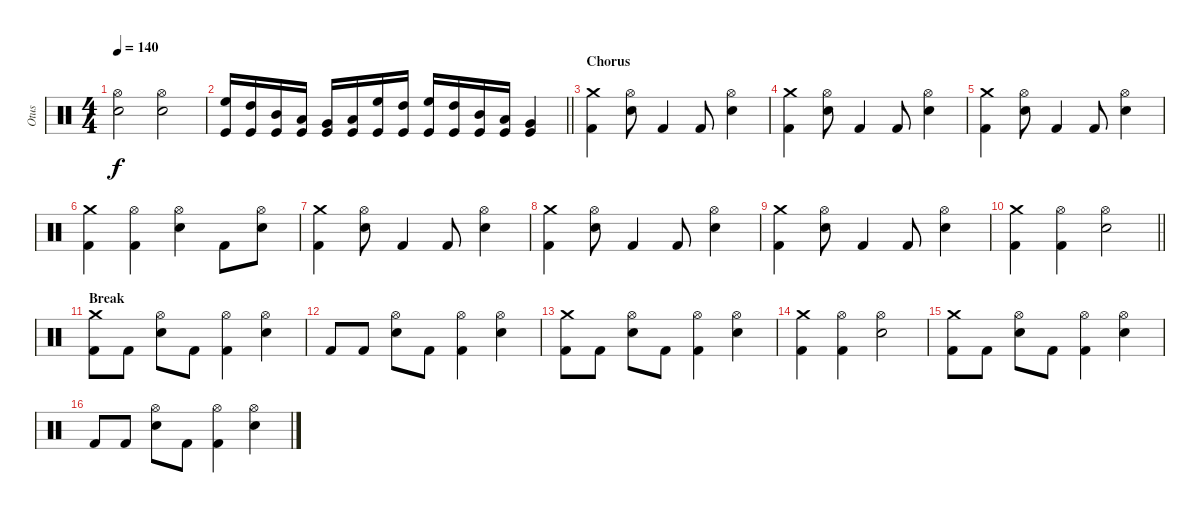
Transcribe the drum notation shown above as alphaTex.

\track ("Otus" "Otus") {instrument percussion}
\staff {score}
\articulation defaults
\ts (4 4)
\tempo 140
\clef neutral
\ks c
("Hi-Hat (open)" "Electric Snare (hit)").2{dy f} ("Hi-Hat (open)" "Electric Snare (hit)").2 |
\barLineRight lightlight
("High Floor Tom (hit)" "Kick (hit)").16 ("High Tom (hit)" "Kick (hit)").16 ("Mid Tom (hit)" "Kick (hit)").16 ("Low Tom (hit)" "Kick (hit)").16 ("Very Low Tom (hit)" "Kick (hit)").16 ("Low Floor Tom (hit)" "Kick (hit)").16 ("High Floor Tom (hit)" "Kick (hit)").16 ("High Tom (hit)" "Kick (hit)").16 ("High Floor Tom (hit)" "Kick (hit)").16 ("High Tom (hit)" "Kick (hit)").16 ("Mid Tom (hit)" "Kick (hit)").16 ("Low Tom (hit)" "Kick (hit)").16 ("Very Low Tom (hit)" "Kick (hit)").4 |
\section ("" "Chorus")
("Crash medium (hit)" "Kick (hit) 2").4 ("Hi-Hat (open)" "Electric Snare (hit)").8 "Kick (hit) 2".4 "Kick (hit) 2".8 ("Hi-Hat (open)" "Electric Snare (hit)").4 |
("Crash medium (hit)" "Kick (hit) 2").4 ("Hi-Hat (open)" "Electric Snare (hit)").8 "Kick (hit) 2".4 "Kick (hit) 2".8 ("Hi-Hat (open)" "Electric Snare (hit)").4 |
("Crash medium (hit)" "Kick (hit) 2").4 ("Hi-Hat (open)" "Electric Snare (hit)").8 "Kick (hit) 2".4 "Kick (hit) 2".8 ("Hi-Hat (open)" "Electric Snare (hit)").4 |
("Crash medium (hit)" "Kick (hit) 2").4 ("Hi-Hat (open)" "Kick (hit) 2").4 ("Hi-Hat (open)" "Electric Snare (hit)").4 "Kick (hit) 2".8 ("Hi-Hat (open)" "Electric Snare (hit)").8 |
("Crash medium (hit)" "Kick (hit) 2").4 ("Hi-Hat (open)" "Electric Snare (hit)").8 "Kick (hit) 2".4 "Kick (hit) 2".8 ("Hi-Hat (open)" "Electric Snare (hit)").4 |
("Crash medium (hit)" "Kick (hit) 2").4 ("Hi-Hat (open)" "Electric Snare (hit)").8 "Kick (hit) 2".4 "Kick (hit) 2".8 ("Hi-Hat (open)" "Electric Snare (hit)").4 |
("Crash medium (hit)" "Kick (hit) 2").4 ("Hi-Hat (open)" "Electric Snare (hit)").8 "Kick (hit) 2".4 "Kick (hit) 2".8 ("Hi-Hat (open)" "Electric Snare (hit)").4 |
\barLineRight lightlight
("Crash medium (hit)" "Kick (hit) 2").4 ("Hi-Hat (open)" "Kick (hit) 2").4 ("Hi-Hat (open)" "Electric Snare (hit)").2 |
\section ("" "Break")
("Crash medium (hit)" "Kick (hit) 2").8 "Kick (hit) 2".8 ("Hi-Hat (open)" "Electric Snare (hit)").8 "Kick (hit) 2".8 ("Hi-Hat (open)" "Kick (hit) 2").4 ("Hi-Hat (open)" "Electric Snare (hit)").4 |
"Kick (hit) 2".8 "Kick (hit) 2".8 ("Hi-Hat (open)" "Electric Snare (hit)").8 "Kick (hit) 2".8 ("Hi-Hat (open)" "Kick (hit) 2").4 ("Hi-Hat (open)" "Electric Snare (hit)").4 |
("Crash medium (hit)" "Kick (hit) 2").8 "Kick (hit) 2".8 ("Hi-Hat (open)" "Electric Snare (hit)").8 "Kick (hit) 2".8 ("Hi-Hat (open)" "Kick (hit) 2").4 ("Hi-Hat (open)" "Electric Snare (hit)").4 |
("Crash medium (hit)" "Kick (hit) 2").4 ("Hi-Hat (open)" "Kick (hit) 2").4 ("Hi-Hat (open)" "Electric Snare (hit)").2 |
("Crash medium (hit)" "Kick (hit) 2").8 "Kick (hit) 2".8 ("Hi-Hat (open)" "Electric Snare (hit)").8 "Kick (hit) 2".8 ("Hi-Hat (open)" "Kick (hit) 2").4 ("Hi-Hat (open)" "Electric Snare (hit)").4 |
"Kick (hit) 2".8 "Kick (hit) 2".8 ("Hi-Hat (open)" "Electric Snare (hit)").8 "Kick (hit) 2".8 ("Hi-Hat (open)" "Kick (hit) 2").4 ("Hi-Hat (open)" "Electric Snare (hit)").4
